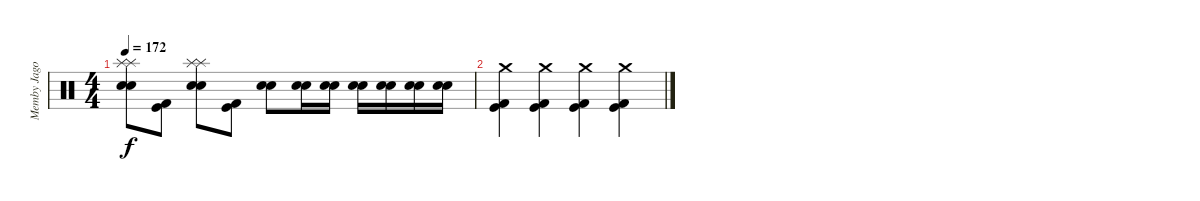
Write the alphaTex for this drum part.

\track ("Memby Jago" "Memby Jago") {instrument percussion}
\staff {score}
\articulation defaults
\ts (4 4)
\tempo 172
\clef neutral
\ks c
("Splash (hit)" "Splash (hit)" "Electric Snare (hit)" "Snare (hit) 2").8{dy f} ("Kick (hit)" "Kick (hit) 2").8 ("Splash (hit)" "Splash (hit)" "Electric Snare (hit)" "Snare (hit) 2").8 ("Kick (hit)" "Kick (hit) 2").8 ("Electric Snare (hit)" "Snare (hit) 2").8 ("Electric Snare (hit)" "Snare (hit) 2").16 ("Electric Snare (hit)" "Snare (hit) 2").16 ("Electric Snare (hit)" "Snare (hit) 2").16 ("Electric Snare (hit)" "Snare (hit) 2").16 ("Electric Snare (hit)" "Snare (hit) 2").16 ("Electric Snare (hit)" "Snare (hit) 2").16 |
("Crash medium (hit)" "Kick (hit)" "Kick (hit) 2").4 ("Crash medium (hit)" "Kick (hit)" "Kick (hit) 2").4 ("Crash medium (hit)" "Kick (hit)" "Kick (hit) 2").4 ("Crash medium (hit)" "Kick (hit)" "Kick (hit) 2").4
